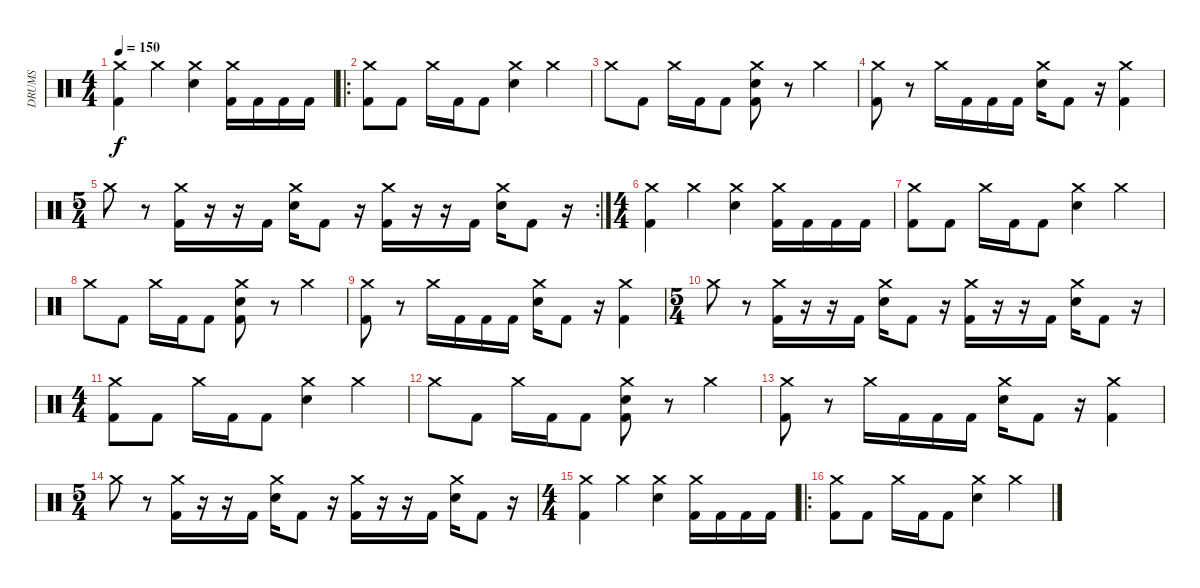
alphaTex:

\track ("DRUMS" "DRUMS") {instrument percussion}
\staff {score}
\articulation defaults
\ts (4 4)
\tempo 150
\clef neutral
\ks c
("Crash medium (hit)" "Kick (hit) 2").4{dy f} "Crash medium (hit)".4 ("Crash medium (hit)" "Electric Snare (hit)").4 ("Crash medium (hit)" "Kick (hit) 2").16 "Kick (hit) 2".16 "Kick (hit) 2".16 "Kick (hit) 2".16 |
\ro
("Crash medium (hit)" "Kick (hit) 2").8 "Kick (hit) 2".8 "Crash medium (hit)".16 "Kick (hit) 2".16 "Kick (hit) 2".8 ("Crash medium (hit)" "Electric Snare (hit)").4 "Crash medium (hit)".4 |
"Crash medium (hit)".8 "Kick (hit) 2".8 "Crash medium (hit)".16 "Kick (hit) 2".16 "Kick (hit) 2".8 ("Crash medium (hit)" "Electric Snare (hit)" "Kick (hit) 2").8 r.8 "Crash medium (hit)".4 |
("Crash medium (hit)" "Kick (hit) 2").8 r.8 "Crash medium (hit)".16 "Kick (hit) 2".16 "Kick (hit) 2".16 "Kick (hit) 2".16 ("Crash medium (hit)" "Electric Snare (hit)").16 "Kick (hit) 2".8 r.16 ("Crash medium (hit)" "Kick (hit) 2").4 |
\rc 2
\ts (5 4)
"Crash medium (hit)".8 r.8 ("Crash medium (hit)" "Kick (hit) 2").16 r.16 r.16 "Kick (hit) 2".16 ("Crash medium (hit)" "Electric Snare (hit)").16 "Kick (hit) 2".8 r.16 ("Crash medium (hit)" "Kick (hit) 2").16 r.16 r.16 "Kick (hit) 2".16 ("Crash medium (hit)" "Electric Snare (hit)").16 "Kick (hit) 2".8 r.16 |
\ts (4 4)
("Crash medium (hit)" "Kick (hit) 2").4 "Crash medium (hit)".4 ("Crash medium (hit)" "Electric Snare (hit)").4 ("Crash medium (hit)" "Kick (hit) 2").16 "Kick (hit) 2".16 "Kick (hit) 2".16 "Kick (hit) 2".16 |
("Crash medium (hit)" "Kick (hit) 2").8 "Kick (hit) 2".8 "Crash medium (hit)".16 "Kick (hit) 2".16 "Kick (hit) 2".8 ("Crash medium (hit)" "Electric Snare (hit)").4 "Crash medium (hit)".4 |
"Crash medium (hit)".8 "Kick (hit) 2".8 "Crash medium (hit)".16 "Kick (hit) 2".16 "Kick (hit) 2".8 ("Crash medium (hit)" "Electric Snare (hit)" "Kick (hit) 2").8 r.8 "Crash medium (hit)".4 |
("Crash medium (hit)" "Kick (hit) 2").8 r.8 "Crash medium (hit)".16 "Kick (hit) 2".16 "Kick (hit) 2".16 "Kick (hit) 2".16 ("Crash medium (hit)" "Electric Snare (hit)").16 "Kick (hit) 2".8 r.16 ("Crash medium (hit)" "Kick (hit) 2").4 |
\ts (5 4)
"Crash medium (hit)".8 r.8 ("Crash medium (hit)" "Kick (hit) 2").16 r.16 r.16 "Kick (hit) 2".16 ("Crash medium (hit)" "Electric Snare (hit)").16 "Kick (hit) 2".8 r.16 ("Crash medium (hit)" "Kick (hit) 2").16 r.16 r.16 "Kick (hit) 2".16 ("Crash medium (hit)" "Electric Snare (hit)").16 "Kick (hit) 2".8 r.16 |
\ts (4 4)
("Crash medium (hit)" "Kick (hit) 2").8 "Kick (hit) 2".8 "Crash medium (hit)".16 "Kick (hit) 2".16 "Kick (hit) 2".8 ("Crash medium (hit)" "Electric Snare (hit)").4 "Crash medium (hit)".4 |
"Crash medium (hit)".8 "Kick (hit) 2".8 "Crash medium (hit)".16 "Kick (hit) 2".16 "Kick (hit) 2".8 ("Crash medium (hit)" "Electric Snare (hit)" "Kick (hit) 2").8 r.8 "Crash medium (hit)".4 |
("Crash medium (hit)" "Kick (hit) 2").8 r.8 "Crash medium (hit)".16 "Kick (hit) 2".16 "Kick (hit) 2".16 "Kick (hit) 2".16 ("Crash medium (hit)" "Electric Snare (hit)").16 "Kick (hit) 2".8 r.16 ("Crash medium (hit)" "Kick (hit) 2").4 |
\ts (5 4)
"Crash medium (hit)".8 r.8 ("Crash medium (hit)" "Kick (hit) 2").16 r.16 r.16 "Kick (hit) 2".16 ("Crash medium (hit)" "Electric Snare (hit)").16 "Kick (hit) 2".8 r.16 ("Crash medium (hit)" "Kick (hit) 2").16 r.16 r.16 "Kick (hit) 2".16 ("Crash medium (hit)" "Electric Snare (hit)").16 "Kick (hit) 2".8 r.16 |
\ts (4 4)
("Crash medium (hit)" "Kick (hit) 2").4 "Crash medium (hit)".4 ("Crash medium (hit)" "Electric Snare (hit)").4 ("Crash medium (hit)" "Kick (hit) 2").16 "Kick (hit) 2".16 "Kick (hit) 2".16 "Kick (hit) 2".16 |
\ro
("Crash medium (hit)" "Kick (hit) 2").8 "Kick (hit) 2".8 "Crash medium (hit)".16 "Kick (hit) 2".16 "Kick (hit) 2".8 ("Crash medium (hit)" "Electric Snare (hit)").4 "Crash medium (hit)".4
